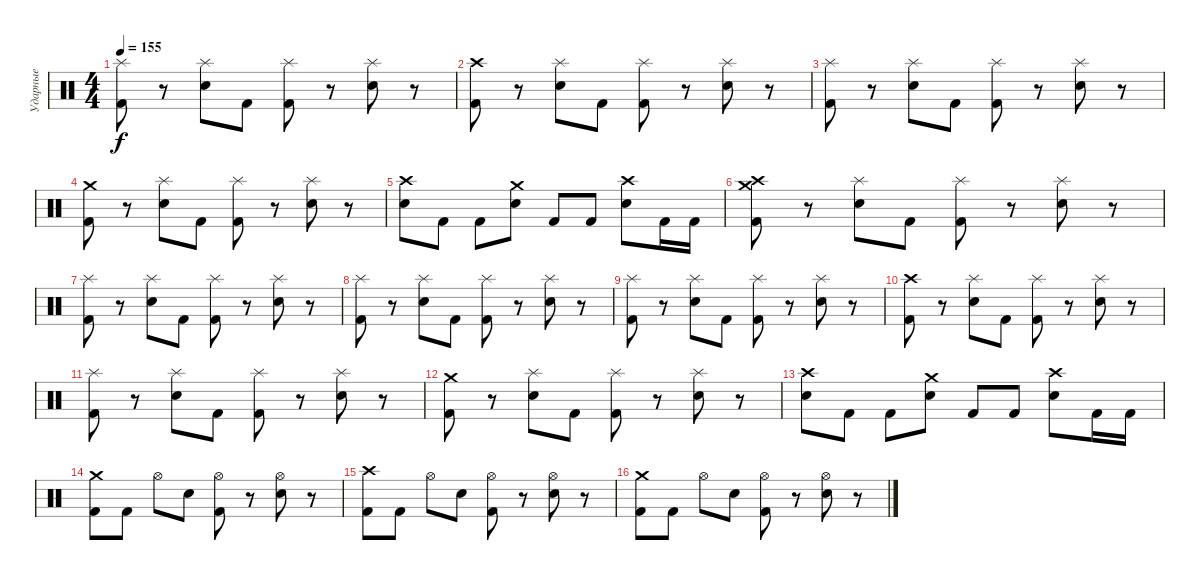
\track ("Ударные" "Ударные") {instrument percussion}
\staff {score}
\articulation defaults
\ts (4 4)
\tempo 155
\clef neutral
\ks c
("Splash (hit)" "Kick (hit) 2").8{dy f} r.8 ("Splash (hit)" "Electric Snare (hit)").8 "Kick (hit) 2".8 ("Splash (hit)" "Kick (hit) 2").8 r.8 ("Splash (hit)" "Electric Snare (hit)").8 r.8 |
("Crash high (hit)" "Kick (hit) 2").8 r.8 ("Splash (hit)" "Electric Snare (hit)").8 "Kick (hit) 2".8 ("Splash (hit)" "Kick (hit) 2").8 r.8 ("Splash (hit)" "Electric Snare (hit)").8 r.8 |
("Splash (hit)" "Kick (hit) 2").8 r.8 ("Splash (hit)" "Electric Snare (hit)").8 "Kick (hit) 2".8 ("Splash (hit)" "Kick (hit) 2").8 r.8 ("Splash (hit)" "Electric Snare (hit)").8 r.8 |
("Crash medium (hit)" "Kick (hit) 2").8 r.8 ("Splash (hit)" "Electric Snare (hit)").8 "Kick (hit) 2".8 ("Splash (hit)" "Kick (hit) 2").8 r.8 ("Splash (hit)" "Electric Snare (hit)").8 r.8 |
("Crash high (hit)" "Electric Snare (hit)").8 "Kick (hit) 2".8 "Kick (hit) 2".8 ("Crash medium (hit)" "Electric Snare (hit)").8 "Kick (hit) 2".8 "Kick (hit) 2".8 ("Crash high (hit)" "Electric Snare (hit)").8 "Kick (hit) 2".16 "Kick (hit) 2".16 |
("Crash medium (hit)" "Crash high (hit)" "Kick (hit) 2").8 r.8 ("Splash (hit)" "Electric Snare (hit)").8 "Kick (hit) 2".8 ("Splash (hit)" "Kick (hit) 2").8 r.8 ("Splash (hit)" "Electric Snare (hit)").8 r.8 |
("Splash (hit)" "Kick (hit) 2").8 r.8 ("Splash (hit)" "Electric Snare (hit)").8 "Kick (hit) 2".8 ("Splash (hit)" "Kick (hit) 2").8 r.8 ("Splash (hit)" "Electric Snare (hit)").8 r.8 |
("Splash (hit)" "Kick (hit) 2").8 r.8 ("Splash (hit)" "Electric Snare (hit)").8 "Kick (hit) 2".8 ("Splash (hit)" "Kick (hit) 2").8 r.8 ("Splash (hit)" "Electric Snare (hit)").8 r.8 |
("Splash (hit)" "Kick (hit) 2").8 r.8 ("Splash (hit)" "Electric Snare (hit)").8 "Kick (hit) 2".8 ("Splash (hit)" "Kick (hit) 2").8 r.8 ("Splash (hit)" "Electric Snare (hit)").8 r.8 |
("Crash high (hit)" "Kick (hit) 2").8 r.8 ("Splash (hit)" "Electric Snare (hit)").8 "Kick (hit) 2".8 ("Splash (hit)" "Kick (hit) 2").8 r.8 ("Splash (hit)" "Electric Snare (hit)").8 r.8 |
("Splash (hit)" "Kick (hit) 2").8 r.8 ("Splash (hit)" "Electric Snare (hit)").8 "Kick (hit) 2".8 ("Splash (hit)" "Kick (hit) 2").8 r.8 ("Splash (hit)" "Electric Snare (hit)").8 r.8 |
("Crash medium (hit)" "Kick (hit) 2").8 r.8 ("Splash (hit)" "Electric Snare (hit)").8 "Kick (hit) 2".8 ("Splash (hit)" "Kick (hit) 2").8 r.8 ("Splash (hit)" "Electric Snare (hit)").8 r.8 |
("Crash high (hit)" "Electric Snare (hit)").8 "Kick (hit) 2".8 "Kick (hit) 2".8 ("Crash medium (hit)" "Electric Snare (hit)").8 "Kick (hit) 2".8 "Kick (hit) 2".8 ("Crash high (hit)" "Electric Snare (hit)").8 "Kick (hit) 2".16 "Kick (hit) 2".16 |
("Crash medium (hit)" "Kick (hit) 2").8 "Kick (hit) 2".8 "Hi-Hat (open)".8 "Electric Snare (hit)".8 ("Hi-Hat (open)" "Kick (hit) 2").8 r.8 ("Hi-Hat (open)" "Electric Snare (hit)").8 r.8 |
("Crash high (hit)" "Kick (hit) 2").8 "Kick (hit) 2".8 "Hi-Hat (open)".8 "Electric Snare (hit)".8 ("Hi-Hat (open)" "Kick (hit) 2").8 r.8 ("Hi-Hat (open)" "Electric Snare (hit)").8 r.8 |
("Crash medium (hit)" "Kick (hit) 2").8 "Kick (hit) 2".8 "Hi-Hat (open)".8 "Electric Snare (hit)".8 ("Hi-Hat (open)" "Kick (hit) 2").8 r.8 ("Hi-Hat (open)" "Electric Snare (hit)").8 r.8
